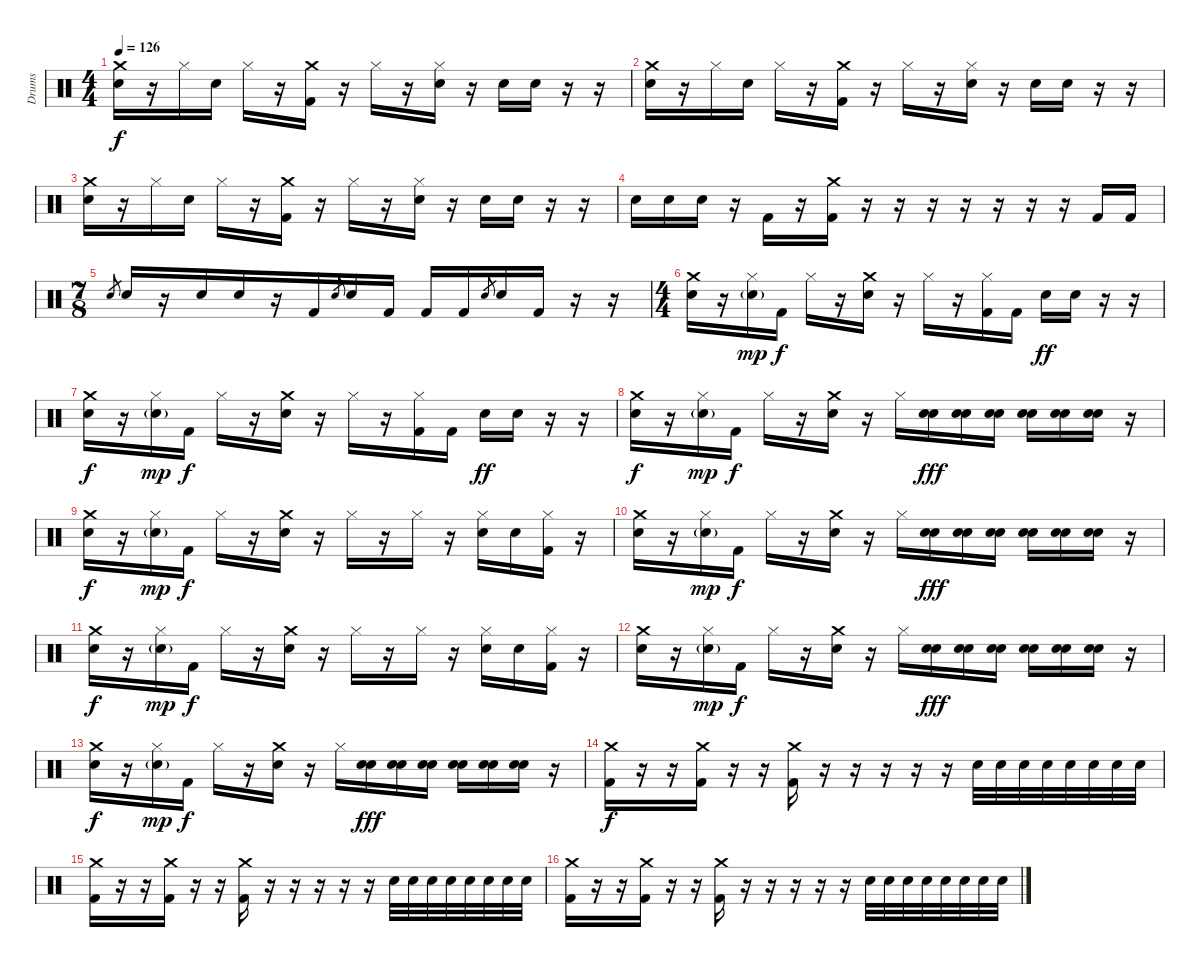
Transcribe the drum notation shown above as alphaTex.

\track ("Drums" "Drums") {instrument percussion}
\staff {score}
\articulation defaults
\ts (4 4)
\tempo 126
\clef neutral
\ks c
("Crash medium (hit)" "Snare (hit) 2").16{dy f} r.16 "Hi-Hat (closed)".16 "Snare (hit) 2".16 "Hi-Hat (closed)".16 r.16 ("Crash medium (hit)" "Kick (hit) 2").16 r.16 "Hi-Hat (closed)".16 r.16 ("Hi-Hat (closed)" "Snare (hit) 2").16 r.16 "Snare (hit) 2".16 "Snare (hit) 2".16 r.16 r.16 |
("Crash medium (hit)" "Snare (hit) 2").16 r.16 "Hi-Hat (closed)".16 "Snare (hit) 2".16 "Hi-Hat (closed)".16 r.16 ("Crash medium (hit)" "Kick (hit) 2").16 r.16 "Hi-Hat (closed)".16 r.16 ("Hi-Hat (closed)" "Snare (hit) 2").16 r.16 "Snare (hit) 2".16 "Snare (hit) 2".16 r.16 r.16 |
("Crash medium (hit)" "Snare (hit) 2").16 r.16 "Hi-Hat (closed)".16 "Snare (hit) 2".16 "Hi-Hat (closed)".16 r.16 ("Crash medium (hit)" "Kick (hit) 2").16 r.16 "Hi-Hat (closed)".16 r.16 ("Hi-Hat (closed)" "Snare (hit) 2").16 r.16 "Snare (hit) 2".16 "Snare (hit) 2".16 r.16 r.16 |
"Snare (hit) 2".16 "Snare (hit) 2".16 "Snare (hit) 2".16 r.16 "Kick (hit) 2".16 r.16 ("Crash medium (hit)" "Kick (hit) 2").16 r.16 r.16 r.16 r.16 r.16 r.16 r.16 "Kick (hit) 2".16 "Kick (hit) 2".16 |
\ts (7 8)
"Snare (hit) 2".8{gr} "Snare (hit) 2".16 r.16 "Snare (hit) 2".16 "Snare (hit) 2".16 r.16 "Kick (hit) 2".16 "Snare (hit) 2".8{gr} "Snare (hit) 2".16 "Kick (hit) 2".16 "Kick (hit) 2".16 "Kick (hit) 2".16 "Snare (hit) 2".8{gr} "Snare (hit) 2".16 "Kick (hit) 2".16 r.16 r.16 |
\ts (4 4)
("Crash medium (hit)" "Snare (hit) 2").16 r.16 ("Hi-Hat (closed)" "Snare (hit) 2"{g}).16{dy mp} "Kick (hit) 2".16{dy f} "Hi-Hat (closed)".16 r.16 ("Crash medium (hit)" "Snare (hit) 2").16 r.16 "Hi-Hat (closed)".16 r.16 ("Hi-Hat (closed)" "Kick (hit) 2").16 "Kick (hit) 2".16 "Snare (hit) 2".16{dy ff} "Snare (hit) 2".16 r.16 r.16 |
("Crash medium (hit)" "Snare (hit) 2").16{dy f} r.16 ("Hi-Hat (closed)" "Snare (hit) 2"{g}).16{dy mp} "Kick (hit) 2".16{dy f} "Hi-Hat (closed)".16 r.16 ("Crash medium (hit)" "Snare (hit) 2").16 r.16 "Hi-Hat (closed)".16 r.16 ("Hi-Hat (closed)" "Kick (hit) 2").16 "Kick (hit) 2".16 "Snare (hit) 2".16{dy ff} "Snare (hit) 2".16 r.16 r.16 |
("Crash medium (hit)" "Snare (hit) 2").16{dy f} r.16 ("Hi-Hat (closed)" "Snare (hit) 2"{g}).16{dy mp} "Kick (hit) 2".16{dy f} "Hi-Hat (closed)".16 r.16 ("Crash medium (hit)" "Snare (hit) 2").16 r.16 "Hi-Hat (closed)".16 ("Snare (hit) 2" "Snare (hit) 2").16{dy fff} ("Snare (hit) 2" "Snare (hit) 2").16 ("Snare (hit) 2" "Snare (hit) 2").16 ("Snare (hit) 2" "Snare (hit) 2").16 ("Snare (hit) 2" "Snare (hit) 2").16 ("Snare (hit) 2" "Snare (hit) 2").16 r.16 |
("Crash medium (hit)" "Snare (hit) 2").16{dy f} r.16 ("Hi-Hat (closed)" "Snare (hit) 2"{g}).16{dy mp} "Kick (hit) 2".16{dy f} "Hi-Hat (closed)".16 r.16 ("Crash medium (hit)" "Snare (hit) 2").16 r.16 "Hi-Hat (closed)".16 r.16 "Hi-Hat (closed)".16 r.16 ("Hi-Hat (closed)" "Snare (hit) 2").16 "Snare (hit) 2".16 ("Hi-Hat (closed)" "Kick (hit) 2").16 r.16 |
("Crash medium (hit)" "Snare (hit) 2").16 r.16 ("Hi-Hat (closed)" "Snare (hit) 2"{g}).16{dy mp} "Kick (hit) 2".16{dy f} "Hi-Hat (closed)".16 r.16 ("Crash medium (hit)" "Snare (hit) 2").16 r.16 "Hi-Hat (closed)".16 ("Snare (hit) 2" "Snare (hit) 2").16{dy fff} ("Snare (hit) 2" "Snare (hit) 2").16 ("Snare (hit) 2" "Snare (hit) 2").16 ("Snare (hit) 2" "Snare (hit) 2").16 ("Snare (hit) 2" "Snare (hit) 2").16 ("Snare (hit) 2" "Snare (hit) 2").16 r.16 |
("Crash medium (hit)" "Snare (hit) 2").16{dy f} r.16 ("Hi-Hat (closed)" "Snare (hit) 2"{g}).16{dy mp} "Kick (hit) 2".16{dy f} "Hi-Hat (closed)".16 r.16 ("Crash medium (hit)" "Snare (hit) 2").16 r.16 "Hi-Hat (closed)".16 r.16 "Hi-Hat (closed)".16 r.16 ("Hi-Hat (closed)" "Snare (hit) 2").16 "Snare (hit) 2".16 ("Hi-Hat (closed)" "Kick (hit) 2").16 r.16 |
("Crash medium (hit)" "Snare (hit) 2").16 r.16 ("Hi-Hat (closed)" "Snare (hit) 2"{g}).16{dy mp} "Kick (hit) 2".16{dy f} "Hi-Hat (closed)".16 r.16 ("Crash medium (hit)" "Snare (hit) 2").16 r.16 "Hi-Hat (closed)".16 ("Snare (hit) 2" "Snare (hit) 2").16{dy fff} ("Snare (hit) 2" "Snare (hit) 2").16 ("Snare (hit) 2" "Snare (hit) 2").16 ("Snare (hit) 2" "Snare (hit) 2").16 ("Snare (hit) 2" "Snare (hit) 2").16 ("Snare (hit) 2" "Snare (hit) 2").16 r.16 |
("Crash medium (hit)" "Snare (hit) 2").16{dy f} r.16 ("Hi-Hat (closed)" "Snare (hit) 2"{g}).16{dy mp} "Kick (hit) 2".16{dy f} "Hi-Hat (closed)".16 r.16 ("Crash medium (hit)" "Snare (hit) 2").16 r.16 "Hi-Hat (closed)".16 ("Snare (hit) 2" "Snare (hit) 2").16{dy fff} ("Snare (hit) 2" "Snare (hit) 2").16 ("Snare (hit) 2" "Snare (hit) 2").16 ("Snare (hit) 2" "Snare (hit) 2").16 ("Snare (hit) 2" "Snare (hit) 2").16 ("Snare (hit) 2" "Snare (hit) 2").16 r.16 |
("Crash medium (hit)" "Kick (hit) 2").16{dy f} r.16 r.16 ("Crash medium (hit)" "Kick (hit) 2").16 r.16 r.16 ("Crash medium (hit)" "Kick (hit) 2").16 r.16 r.16 r.16 r.16 r.16 "Snare (hit) 2".32 "Snare (hit) 2".32 "Snare (hit) 2".32 "Snare (hit) 2".32 "Snare (hit) 2".32 "Snare (hit) 2".32 "Snare (hit) 2".32 "Snare (hit) 2".32 |
("Crash medium (hit)" "Kick (hit) 2").16 r.16 r.16 ("Crash medium (hit)" "Kick (hit) 2").16 r.16 r.16 ("Crash medium (hit)" "Kick (hit) 2").16 r.16 r.16 r.16 r.16 r.16 "Snare (hit) 2".32 "Snare (hit) 2".32 "Snare (hit) 2".32 "Snare (hit) 2".32 "Snare (hit) 2".32 "Snare (hit) 2".32 "Snare (hit) 2".32 "Snare (hit) 2".32 |
("Crash medium (hit)" "Kick (hit) 2").16 r.16 r.16 ("Crash medium (hit)" "Kick (hit) 2").16 r.16 r.16 ("Crash medium (hit)" "Kick (hit) 2").16 r.16 r.16 r.16 r.16 r.16 "Snare (hit) 2".32 "Snare (hit) 2".32 "Snare (hit) 2".32 "Snare (hit) 2".32 "Snare (hit) 2".32 "Snare (hit) 2".32 "Snare (hit) 2".32 "Snare (hit) 2".32
